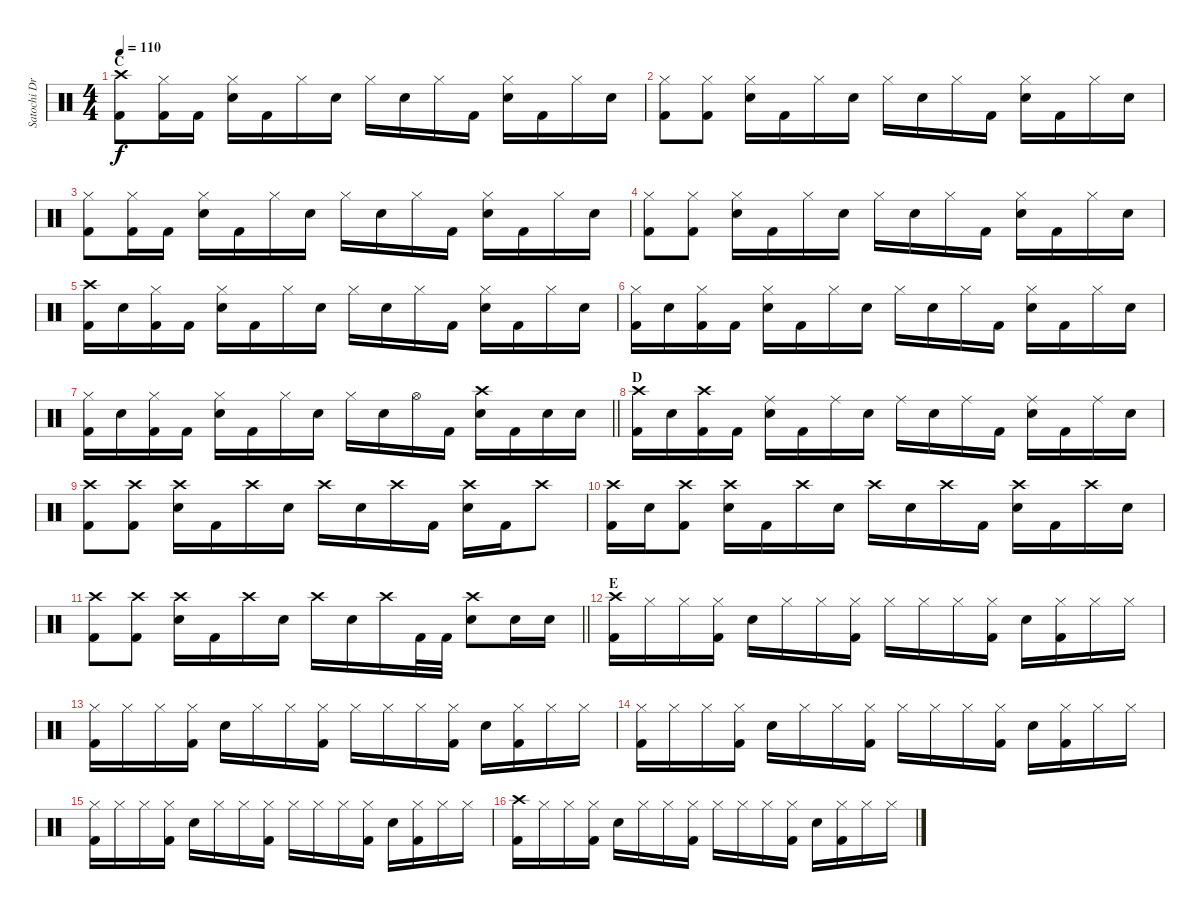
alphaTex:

\track ("Satochi Drums" "Satochi Dr") {instrument percussion}
\staff {score}
\articulation defaults
\ts (4 4)
\section ("" "C")
\tempo 110
\clef neutral
\ks c
("Crash high (hit)" "Kick (hit) 2").8{dy f} ("Hi-Hat (closed)" "Kick (hit) 2").16 "Kick (hit) 2".16 ("Hi-Hat (closed)" "Snare (hit) 2").16 "Kick (hit) 2".16 "Hi-Hat (closed)".16 "Snare (hit) 2".16 "Hi-Hat (closed)".16 "Snare (hit) 2".16 "Hi-Hat (closed)".16 "Kick (hit) 2".16 ("Hi-Hat (closed)" "Snare (hit) 2").16 "Kick (hit) 2".16 "Hi-Hat (closed)".16 "Snare (hit) 2".16 |
("Hi-Hat (closed)" "Kick (hit) 2").8 ("Hi-Hat (closed)" "Kick (hit) 2").8 ("Hi-Hat (closed)" "Snare (hit) 2").16 "Kick (hit) 2".16 "Hi-Hat (closed)".16 "Snare (hit) 2".16 "Hi-Hat (closed)".16 "Snare (hit) 2".16 "Hi-Hat (closed)".16 "Kick (hit) 2".16 ("Hi-Hat (closed)" "Snare (hit) 2").16 "Kick (hit) 2".16 "Hi-Hat (closed)".16 "Snare (hit) 2".16 |
("Hi-Hat (closed)" "Kick (hit) 2").8 ("Hi-Hat (closed)" "Kick (hit) 2").16 "Kick (hit) 2".16 ("Hi-Hat (closed)" "Snare (hit) 2").16 "Kick (hit) 2".16 "Hi-Hat (closed)".16 "Snare (hit) 2".16 "Hi-Hat (closed)".16 "Snare (hit) 2".16 "Hi-Hat (closed)".16 "Kick (hit) 2".16 ("Hi-Hat (closed)" "Snare (hit) 2").16 "Kick (hit) 2".16 "Hi-Hat (closed)".16 "Snare (hit) 2".16 |
("Hi-Hat (closed)" "Kick (hit) 2").8 ("Hi-Hat (closed)" "Kick (hit) 2").8 ("Hi-Hat (closed)" "Snare (hit) 2").16 "Kick (hit) 2".16 "Hi-Hat (closed)".16 "Snare (hit) 2".16 "Hi-Hat (closed)".16 "Snare (hit) 2".16 "Hi-Hat (closed)".16 "Kick (hit) 2".16 ("Hi-Hat (closed)" "Snare (hit) 2").16 "Kick (hit) 2".16 "Hi-Hat (closed)".16 "Snare (hit) 2".16 |
("Crash high (hit)" "Kick (hit) 2").16 "Snare (hit) 2".16 ("Hi-Hat (closed)" "Kick (hit) 2").16 "Kick (hit) 2".16 ("Hi-Hat (closed)" "Snare (hit) 2").16 "Kick (hit) 2".16 "Hi-Hat (closed)".16 "Snare (hit) 2".16 "Hi-Hat (closed)".16 "Snare (hit) 2".16 "Hi-Hat (closed)".16 "Kick (hit) 2".16 ("Hi-Hat (closed)" "Snare (hit) 2").16 "Kick (hit) 2".16 "Hi-Hat (closed)".16 "Snare (hit) 2".16 |
("Hi-Hat (closed)" "Kick (hit) 2").16 "Snare (hit) 2".16 ("Hi-Hat (closed)" "Kick (hit) 2").16 "Kick (hit) 2".16 ("Hi-Hat (closed)" "Snare (hit) 2").16 "Kick (hit) 2".16 "Hi-Hat (closed)".16 "Snare (hit) 2".16 "Hi-Hat (closed)".16 "Snare (hit) 2".16 "Hi-Hat (closed)".16 "Kick (hit) 2".16 ("Hi-Hat (closed)" "Snare (hit) 2").16 "Kick (hit) 2".16 "Hi-Hat (closed)".16 "Snare (hit) 2".16 |
\barLineRight lightlight
("Hi-Hat (closed)" "Kick (hit) 2").16 "Snare (hit) 2".16 ("Hi-Hat (closed)" "Kick (hit) 2").16 "Kick (hit) 2".16 ("Hi-Hat (closed)" "Snare (hit) 2").16 "Kick (hit) 2".16 "Hi-Hat (closed)".16 "Snare (hit) 2".16 "Hi-Hat (closed)".16 "Snare (hit) 2".16 "Hi-Hat (open)".16 "Kick (hit) 2".16 ("Crash high (hit)" "Snare (hit) 2").16 "Kick (hit) 2".16 "Snare (hit) 2".16 "Snare (hit) 2".16 |
\section ("" "D")
("Crash high (hit)" "Kick (hit) 2").16 "Snare (hit) 2".16 ("Crash high (hit)" "Kick (hit) 2").16 "Kick (hit) 2".16 ("Ride (middle)" "Snare (hit) 2").16 "Kick (hit) 2".16 "Ride (middle)".16 "Snare (hit) 2".16 "Ride (middle)".16 "Snare (hit) 2".16 "Ride (middle)".16 "Kick (hit) 2".16 ("Ride (middle)" "Snare (hit) 2").16 "Kick (hit) 2".16 "Ride (middle)".16 "Snare (hit) 2".16 |
("Crash high (hit)" "Kick (hit) 2").8 ("Crash high (hit)" "Kick (hit) 2").8 ("Crash high (hit)" "Snare (hit) 2").16 "Kick (hit) 2".16 "Crash high (hit)".16 "Snare (hit) 2".16 "Crash high (hit)".16 "Snare (hit) 2".16 "Crash high (hit)".16 "Kick (hit) 2".16 ("Crash high (hit)" "Snare (hit) 2").16 "Kick (hit) 2".16 "Crash high (hit)".8 |
("Crash high (hit)" "Kick (hit) 2").16 "Snare (hit) 2".16 ("Crash high (hit)" "Kick (hit) 2").8 ("Crash high (hit)" "Snare (hit) 2").16 "Kick (hit) 2".16 "Crash high (hit)".16 "Snare (hit) 2".16 "Crash high (hit)".16 "Snare (hit) 2".16 "Crash high (hit)".16 "Kick (hit) 2".16 ("Crash high (hit)" "Snare (hit) 2").16 "Kick (hit) 2".16 "Crash high (hit)".16 "Snare (hit) 2".16 |
\barLineRight lightlight
("Crash high (hit)" "Kick (hit) 2").8 ("Crash high (hit)" "Kick (hit) 2").8 ("Crash high (hit)" "Snare (hit) 2").16 "Kick (hit) 2".16 "Crash high (hit)".16 "Snare (hit) 2".16 "Crash high (hit)".16 "Snare (hit) 2".16 "Crash high (hit)".16 "Kick (hit) 2".32 "Kick (hit) 2".32 ("Crash high (hit)" "Snare (hit) 2").8 "Snare (hit) 2".16 "Snare (hit) 2".16 |
\section ("" "E")
("Crash high (hit)" "Kick (hit) 2").16 "Hi-Hat (closed)".16 "Hi-Hat (closed)".16 ("Hi-Hat (closed)" "Kick (hit) 2").16 "Snare (hit) 2".16 "Hi-Hat (closed)".16 "Hi-Hat (closed)".16 ("Hi-Hat (closed)" "Kick (hit) 2").16 "Hi-Hat (closed)".16 "Hi-Hat (closed)".16 "Hi-Hat (closed)".16 ("Hi-Hat (closed)" "Kick (hit) 2").16 "Snare (hit) 2".16 ("Hi-Hat (closed)" "Kick (hit) 2").16 "Hi-Hat (closed)".16 "Hi-Hat (closed)".16 |
("Hi-Hat (closed)" "Kick (hit) 2").16 "Hi-Hat (closed)".16 "Hi-Hat (closed)".16 ("Hi-Hat (closed)" "Kick (hit) 2").16 "Snare (hit) 2".16 "Hi-Hat (closed)".16 "Hi-Hat (closed)".16 ("Hi-Hat (closed)" "Kick (hit) 2").16 "Hi-Hat (closed)".16 "Hi-Hat (closed)".16 "Hi-Hat (closed)".16 ("Hi-Hat (closed)" "Kick (hit) 2").16 "Snare (hit) 2".16 ("Hi-Hat (closed)" "Kick (hit) 2").16 "Hi-Hat (closed)".16 "Hi-Hat (closed)".16 |
("Hi-Hat (closed)" "Kick (hit) 2").16 "Hi-Hat (closed)".16 "Hi-Hat (closed)".16 ("Hi-Hat (closed)" "Kick (hit) 2").16 "Snare (hit) 2".16 "Hi-Hat (closed)".16 "Hi-Hat (closed)".16 ("Hi-Hat (closed)" "Kick (hit) 2").16 "Hi-Hat (closed)".16 "Hi-Hat (closed)".16 "Hi-Hat (closed)".16 ("Hi-Hat (closed)" "Kick (hit) 2").16 "Snare (hit) 2".16 ("Hi-Hat (closed)" "Kick (hit) 2").16 "Hi-Hat (closed)".16 "Hi-Hat (closed)".16 |
("Hi-Hat (closed)" "Kick (hit) 2").16 "Hi-Hat (closed)".16 "Hi-Hat (closed)".16 ("Hi-Hat (closed)" "Kick (hit) 2").16 "Snare (hit) 2".16 "Hi-Hat (closed)".16 "Hi-Hat (closed)".16 ("Hi-Hat (closed)" "Kick (hit) 2").16 "Hi-Hat (closed)".16 "Hi-Hat (closed)".16 "Hi-Hat (closed)".16 ("Hi-Hat (closed)" "Kick (hit) 2").16 "Snare (hit) 2".16 ("Hi-Hat (closed)" "Kick (hit) 2").16 "Hi-Hat (closed)".16 "Hi-Hat (closed)".16 |
("Crash high (hit)" "Kick (hit) 2").16 "Hi-Hat (closed)".16 "Hi-Hat (closed)".16 ("Hi-Hat (closed)" "Kick (hit) 2").16 "Snare (hit) 2".16 "Hi-Hat (closed)".16 "Hi-Hat (closed)".16 ("Hi-Hat (closed)" "Kick (hit) 2").16 "Hi-Hat (closed)".16 "Hi-Hat (closed)".16 "Hi-Hat (closed)".16 ("Hi-Hat (closed)" "Kick (hit) 2").16 "Snare (hit) 2".16 ("Hi-Hat (closed)" "Kick (hit) 2").16 "Hi-Hat (closed)".16 "Hi-Hat (closed)".16
